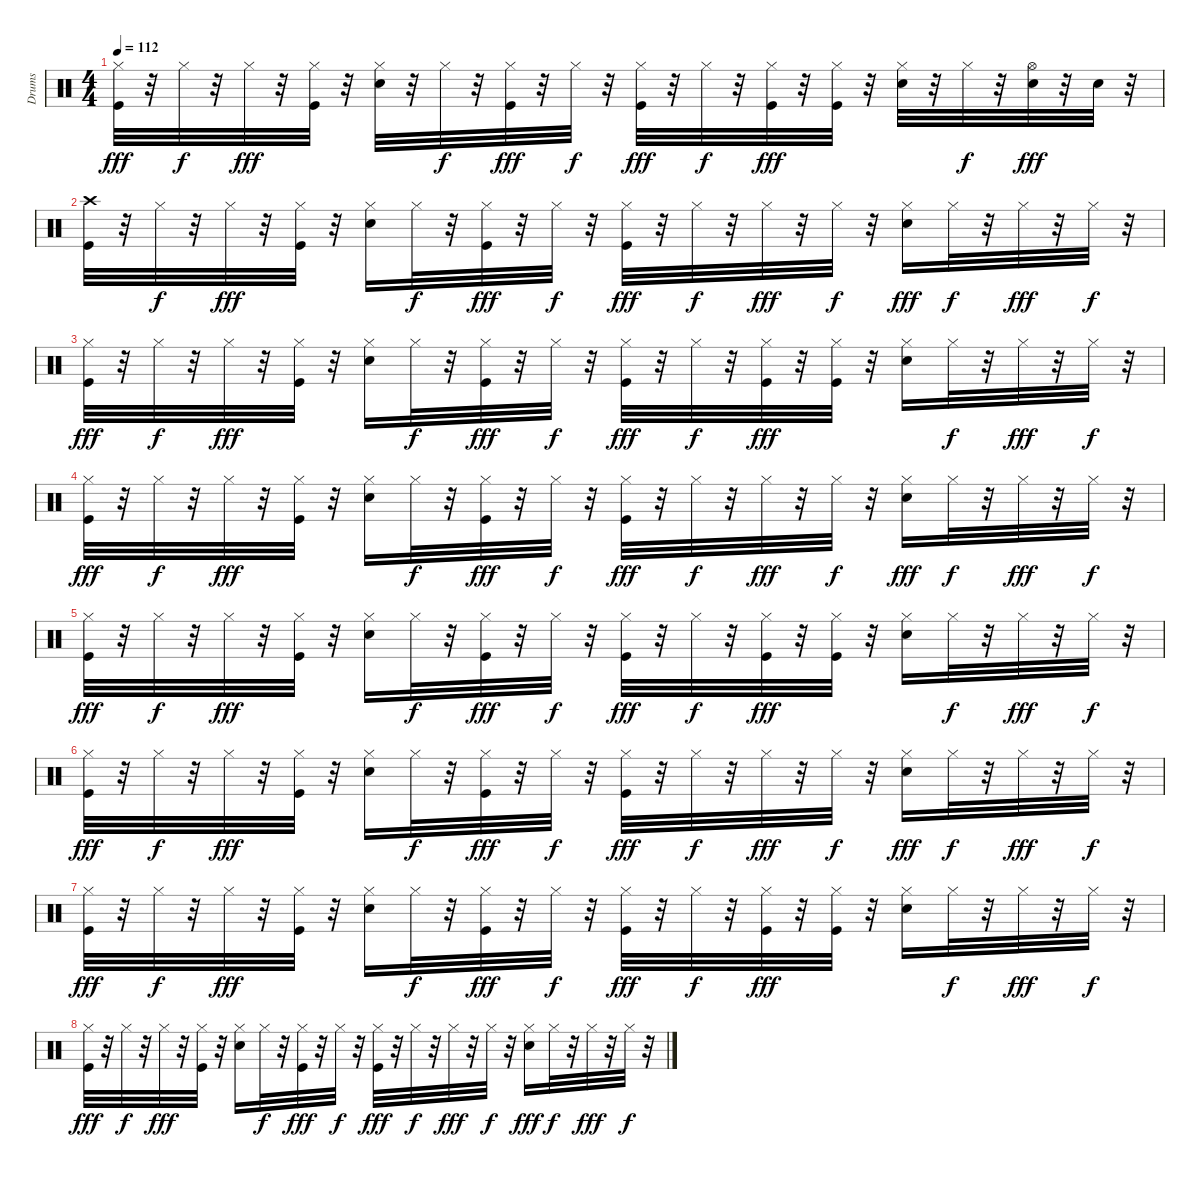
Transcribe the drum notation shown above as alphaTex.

\track ("Drums" "Drums") {instrument percussion}
\staff {score}
\articulation defaults
\ts (4 4)
\tempo 112
\clef neutral
\ks c
("Kick (hit)" "Hi-Hat (closed)").32{dy fff} r.32 "Hi-Hat (closed)".32{dy f} r.32 "Hi-Hat (closed)".32{dy fff} r.32 ("Kick (hit)" "Hi-Hat (closed)").32 r.32 ("Snare (hit) 2" "Hi-Hat (closed)").32 r.32 "Hi-Hat (closed)".32{dy f} r.32 ("Kick (hit)" "Hi-Hat (closed)").32{dy fff} r.32 "Hi-Hat (closed)".32{dy f} r.32 ("Kick (hit)" "Hi-Hat (closed)").32{dy fff} r.32 "Hi-Hat (closed)".32{dy f} r.32 ("Kick (hit)" "Hi-Hat (closed)").32{dy fff} r.32 ("Kick (hit)" "Hi-Hat (closed)").32 r.32 ("Snare (hit) 2" "Hi-Hat (closed)").32 r.32 "Hi-Hat (closed)".32{dy f} r.32 ("Snare (hit) 2" "Hi-Hat (open)").32{dy fff} r.32 "Snare (hit) 2".32 r.32 |
("Kick (hit)" "Crash high (hit)").32 r.32 "Hi-Hat (closed)".32{dy f} r.32 "Hi-Hat (closed)".32{dy fff} r.32 ("Kick (hit)" "Hi-Hat (closed)").32 r.32 ("Snare (hit) 2" "Hi-Hat (closed)").16 "Hi-Hat (closed)".32{dy f} r.32 ("Kick (hit)" "Hi-Hat (closed)").32{dy fff} r.32 "Hi-Hat (closed)".32{dy f} r.32 ("Kick (hit)" "Hi-Hat (closed)").32{dy fff} r.32 "Hi-Hat (closed)".32{dy f} r.32 "Hi-Hat (closed)".32{dy fff} r.32 "Hi-Hat (closed)".32{dy f} r.32 ("Snare (hit) 2" "Hi-Hat (closed)").16{dy fff} "Hi-Hat (closed)".32{dy f} r.32 "Hi-Hat (closed)".32{dy fff} r.32 "Hi-Hat (closed)".32{dy f} r.32 |
("Kick (hit)" "Hi-Hat (closed)").32{dy fff} r.32 "Hi-Hat (closed)".32{dy f} r.32 "Hi-Hat (closed)".32{dy fff} r.32 ("Kick (hit)" "Hi-Hat (closed)").32 r.32 ("Snare (hit) 2" "Hi-Hat (closed)").16 "Hi-Hat (closed)".32{dy f} r.32 ("Kick (hit)" "Hi-Hat (closed)").32{dy fff} r.32 "Hi-Hat (closed)".32{dy f} r.32 ("Kick (hit)" "Hi-Hat (closed)").32{dy fff} r.32 "Hi-Hat (closed)".32{dy f} r.32 ("Kick (hit)" "Hi-Hat (closed)").32{dy fff} r.32 ("Kick (hit)" "Hi-Hat (closed)").32 r.32 ("Snare (hit) 2" "Hi-Hat (closed)").16 "Hi-Hat (closed)".32{dy f} r.32 "Hi-Hat (closed)".32{dy fff} r.32 "Hi-Hat (closed)".32{dy f} r.32 |
("Kick (hit)" "Hi-Hat (closed)").32{dy fff} r.32 "Hi-Hat (closed)".32{dy f} r.32 "Hi-Hat (closed)".32{dy fff} r.32 ("Kick (hit)" "Hi-Hat (closed)").32 r.32 ("Snare (hit) 2" "Hi-Hat (closed)").16 "Hi-Hat (closed)".32{dy f} r.32 ("Kick (hit)" "Hi-Hat (closed)").32{dy fff} r.32 "Hi-Hat (closed)".32{dy f} r.32 ("Kick (hit)" "Hi-Hat (closed)").32{dy fff} r.32 "Hi-Hat (closed)".32{dy f} r.32 "Hi-Hat (closed)".32{dy fff} r.32 "Hi-Hat (closed)".32{dy f} r.32 ("Snare (hit) 2" "Hi-Hat (closed)").16{dy fff} "Hi-Hat (closed)".32{dy f} r.32 "Hi-Hat (closed)".32{dy fff} r.32 "Hi-Hat (closed)".32{dy f} r.32 |
("Kick (hit)" "Hi-Hat (closed)").32{dy fff} r.32 "Hi-Hat (closed)".32{dy f} r.32 "Hi-Hat (closed)".32{dy fff} r.32 ("Kick (hit)" "Hi-Hat (closed)").32 r.32 ("Snare (hit) 2" "Hi-Hat (closed)").16 "Hi-Hat (closed)".32{dy f} r.32 ("Kick (hit)" "Hi-Hat (closed)").32{dy fff} r.32 "Hi-Hat (closed)".32{dy f} r.32 ("Kick (hit)" "Hi-Hat (closed)").32{dy fff} r.32 "Hi-Hat (closed)".32{dy f} r.32 ("Kick (hit)" "Hi-Hat (closed)").32{dy fff} r.32 ("Kick (hit)" "Hi-Hat (closed)").32 r.32 ("Snare (hit) 2" "Hi-Hat (closed)").16 "Hi-Hat (closed)".32{dy f} r.32 "Hi-Hat (closed)".32{dy fff} r.32 "Hi-Hat (closed)".32{dy f} r.32 |
("Kick (hit)" "Hi-Hat (closed)").32{dy fff} r.32 "Hi-Hat (closed)".32{dy f} r.32 "Hi-Hat (closed)".32{dy fff} r.32 ("Kick (hit)" "Hi-Hat (closed)").32 r.32 ("Snare (hit) 2" "Hi-Hat (closed)").16 "Hi-Hat (closed)".32{dy f} r.32 ("Kick (hit)" "Hi-Hat (closed)").32{dy fff} r.32 "Hi-Hat (closed)".32{dy f} r.32 ("Kick (hit)" "Hi-Hat (closed)").32{dy fff} r.32 "Hi-Hat (closed)".32{dy f} r.32 "Hi-Hat (closed)".32{dy fff} r.32 "Hi-Hat (closed)".32{dy f} r.32 ("Snare (hit) 2" "Hi-Hat (closed)").16{dy fff} "Hi-Hat (closed)".32{dy f} r.32 "Hi-Hat (closed)".32{dy fff} r.32 "Hi-Hat (closed)".32{dy f} r.32 |
("Kick (hit)" "Hi-Hat (closed)").32{dy fff} r.32 "Hi-Hat (closed)".32{dy f} r.32 "Hi-Hat (closed)".32{dy fff} r.32 ("Kick (hit)" "Hi-Hat (closed)").32 r.32 ("Snare (hit) 2" "Hi-Hat (closed)").16 "Hi-Hat (closed)".32{dy f} r.32 ("Kick (hit)" "Hi-Hat (closed)").32{dy fff} r.32 "Hi-Hat (closed)".32{dy f} r.32 ("Kick (hit)" "Hi-Hat (closed)").32{dy fff} r.32 "Hi-Hat (closed)".32{dy f} r.32 ("Kick (hit)" "Hi-Hat (closed)").32{dy fff} r.32 ("Kick (hit)" "Hi-Hat (closed)").32 r.32 ("Snare (hit) 2" "Hi-Hat (closed)").16 "Hi-Hat (closed)".32{dy f} r.32 "Hi-Hat (closed)".32{dy fff} r.32 "Hi-Hat (closed)".32{dy f} r.32 |
("Kick (hit)" "Hi-Hat (closed)").32{dy fff} r.32 "Hi-Hat (closed)".32{dy f} r.32 "Hi-Hat (closed)".32{dy fff} r.32 ("Kick (hit)" "Hi-Hat (closed)").32 r.32 ("Snare (hit) 2" "Hi-Hat (closed)").16 "Hi-Hat (closed)".32{dy f} r.32 ("Kick (hit)" "Hi-Hat (closed)").32{dy fff} r.32 "Hi-Hat (closed)".32{dy f} r.32 ("Kick (hit)" "Hi-Hat (closed)").32{dy fff} r.32 "Hi-Hat (closed)".32{dy f} r.32 "Hi-Hat (closed)".32{dy fff} r.32 "Hi-Hat (closed)".32{dy f} r.32 ("Snare (hit) 2" "Hi-Hat (closed)").16{dy fff} "Hi-Hat (closed)".32{dy f} r.32 "Hi-Hat (closed)".32{dy fff} r.32 "Hi-Hat (closed)".32{dy f} r.32
